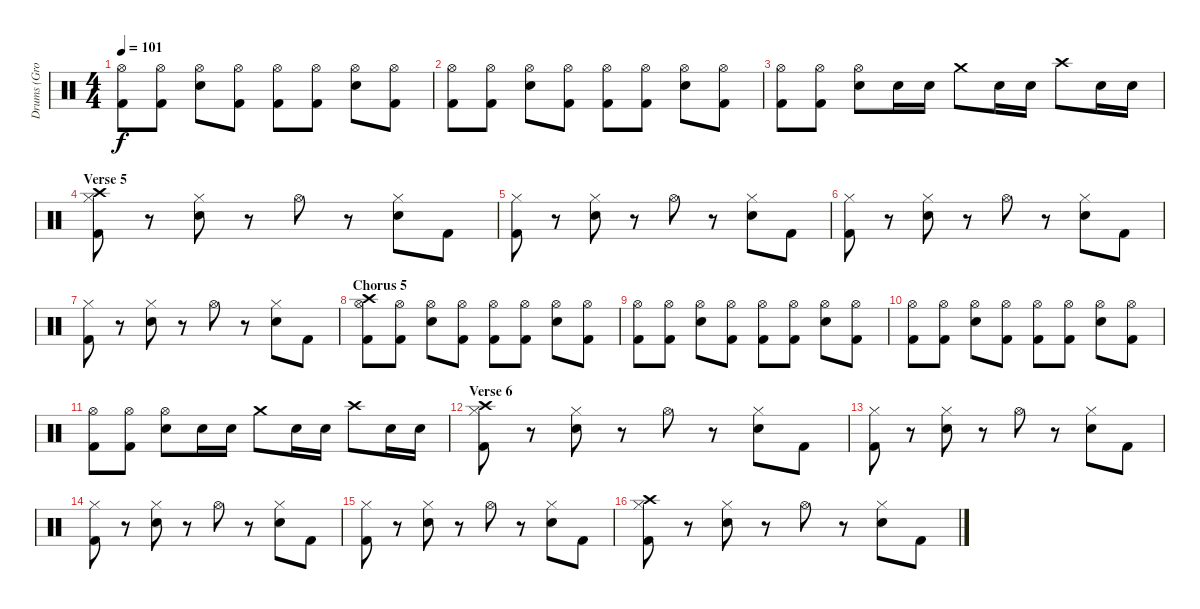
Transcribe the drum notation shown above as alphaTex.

\track ("Drums (Grohl)" "Drums (Gro") {instrument percussion}
\staff {score}
\articulation defaults
\ts (4 4)
\tempo 101
\clef neutral
\ks c
("Hi-Hat (open)" "Kick (hit) 2").8{dy f} ("Hi-Hat (open)" "Kick (hit) 2").8 ("Hi-Hat (open)" "Snare (hit) 2").8 ("Hi-Hat (open)" "Kick (hit) 2").8 ("Hi-Hat (open)" "Kick (hit) 2").8 ("Hi-Hat (open)" "Kick (hit) 2").8 ("Hi-Hat (open)" "Snare (hit) 2").8 ("Hi-Hat (open)" "Kick (hit) 2").8 |
("Hi-Hat (open)" "Kick (hit) 2").8 ("Hi-Hat (open)" "Kick (hit) 2").8 ("Hi-Hat (open)" "Snare (hit) 2").8 ("Hi-Hat (open)" "Kick (hit) 2").8 ("Hi-Hat (open)" "Kick (hit) 2").8 ("Hi-Hat (open)" "Kick (hit) 2").8 ("Hi-Hat (open)" "Snare (hit) 2").8 ("Hi-Hat (open)" "Kick (hit) 2").8 |
("Hi-Hat (open)" "Kick (hit) 2").8 ("Hi-Hat (open)" "Kick (hit) 2").8 ("Hi-Hat (open)" "Snare (hit) 2").8 "Snare (hit) 2".16 "Snare (hit) 2".16 "Crash medium (hit)".8 "Snare (hit) 2".16 "Snare (hit) 2".16 "Crash high (hit)".8 "Snare (hit) 2".16 "Snare (hit) 2".16 |
\section ("" "Verse 5")
("Hi-Hat (closed)" "Kick (hit) 2" "Crash high (hit)").8 r.8 ("Hi-Hat (closed)" "Snare (hit) 2").8 r.8 "Hi-Hat (open)".8 r.8 ("Hi-Hat (closed)" "Snare (hit) 2").8 "Kick (hit) 2".8 |
("Hi-Hat (closed)" "Kick (hit) 2").8 r.8 ("Hi-Hat (closed)" "Snare (hit) 2").8 r.8 "Hi-Hat (open)".8 r.8 ("Hi-Hat (closed)" "Snare (hit) 2").8 "Kick (hit) 2".8 |
("Hi-Hat (closed)" "Kick (hit) 2").8 r.8 ("Hi-Hat (closed)" "Snare (hit) 2").8 r.8 "Hi-Hat (open)".8 r.8 ("Hi-Hat (closed)" "Snare (hit) 2").8 "Kick (hit) 2".8 |
("Hi-Hat (closed)" "Kick (hit) 2").8 r.8 ("Hi-Hat (closed)" "Snare (hit) 2").8 r.8 "Hi-Hat (open)".8 r.8 ("Hi-Hat (closed)" "Snare (hit) 2").8 "Kick (hit) 2".8 |
\section ("" "Chorus 5")
("Hi-Hat (open)" "Kick (hit) 2" "Crash high (hit)").8 ("Hi-Hat (open)" "Kick (hit) 2").8 ("Hi-Hat (open)" "Snare (hit) 2").8 ("Hi-Hat (open)" "Kick (hit) 2").8 ("Hi-Hat (open)" "Kick (hit) 2").8 ("Hi-Hat (open)" "Kick (hit) 2").8 ("Hi-Hat (open)" "Snare (hit) 2").8 ("Hi-Hat (open)" "Kick (hit) 2").8 |
("Hi-Hat (open)" "Kick (hit) 2").8 ("Hi-Hat (open)" "Kick (hit) 2").8 ("Hi-Hat (open)" "Snare (hit) 2").8 ("Hi-Hat (open)" "Kick (hit) 2").8 ("Hi-Hat (open)" "Kick (hit) 2").8 ("Hi-Hat (open)" "Kick (hit) 2").8 ("Hi-Hat (open)" "Snare (hit) 2").8 ("Hi-Hat (open)" "Kick (hit) 2").8 |
("Hi-Hat (open)" "Kick (hit) 2").8 ("Hi-Hat (open)" "Kick (hit) 2").8 ("Hi-Hat (open)" "Snare (hit) 2").8 ("Hi-Hat (open)" "Kick (hit) 2").8 ("Hi-Hat (open)" "Kick (hit) 2").8 ("Hi-Hat (open)" "Kick (hit) 2").8 ("Hi-Hat (open)" "Snare (hit) 2").8 ("Hi-Hat (open)" "Kick (hit) 2").8 |
("Hi-Hat (open)" "Kick (hit) 2").8 ("Hi-Hat (open)" "Kick (hit) 2").8 ("Hi-Hat (open)" "Snare (hit) 2").8 "Snare (hit) 2".16 "Snare (hit) 2".16 "Crash medium (hit)".8 "Snare (hit) 2".16 "Snare (hit) 2".16 "Crash high (hit)".8 "Snare (hit) 2".16 "Snare (hit) 2".16 |
\section ("" "Verse 6")
("Hi-Hat (closed)" "Kick (hit) 2" "Crash high (hit)").8 r.8 ("Hi-Hat (closed)" "Snare (hit) 2").8 r.8 "Hi-Hat (open)".8 r.8 ("Hi-Hat (closed)" "Snare (hit) 2").8 "Kick (hit) 2".8 |
("Hi-Hat (closed)" "Kick (hit) 2").8 r.8 ("Hi-Hat (closed)" "Snare (hit) 2").8 r.8 "Hi-Hat (open)".8 r.8 ("Hi-Hat (closed)" "Snare (hit) 2").8 "Kick (hit) 2".8 |
("Hi-Hat (closed)" "Kick (hit) 2").8 r.8 ("Hi-Hat (closed)" "Snare (hit) 2").8 r.8 "Hi-Hat (open)".8 r.8 ("Hi-Hat (closed)" "Snare (hit) 2").8 "Kick (hit) 2".8 |
("Hi-Hat (closed)" "Kick (hit) 2").8 r.8 ("Hi-Hat (closed)" "Snare (hit) 2").8 r.8 "Hi-Hat (open)".8 r.8 ("Hi-Hat (closed)" "Snare (hit) 2").8 "Kick (hit) 2".8 |
("Hi-Hat (closed)" "Kick (hit) 2" "Crash high (hit)").8 r.8 ("Hi-Hat (closed)" "Snare (hit) 2").8 r.8 "Hi-Hat (open)".8 r.8 ("Hi-Hat (closed)" "Snare (hit) 2").8 "Kick (hit) 2".8
